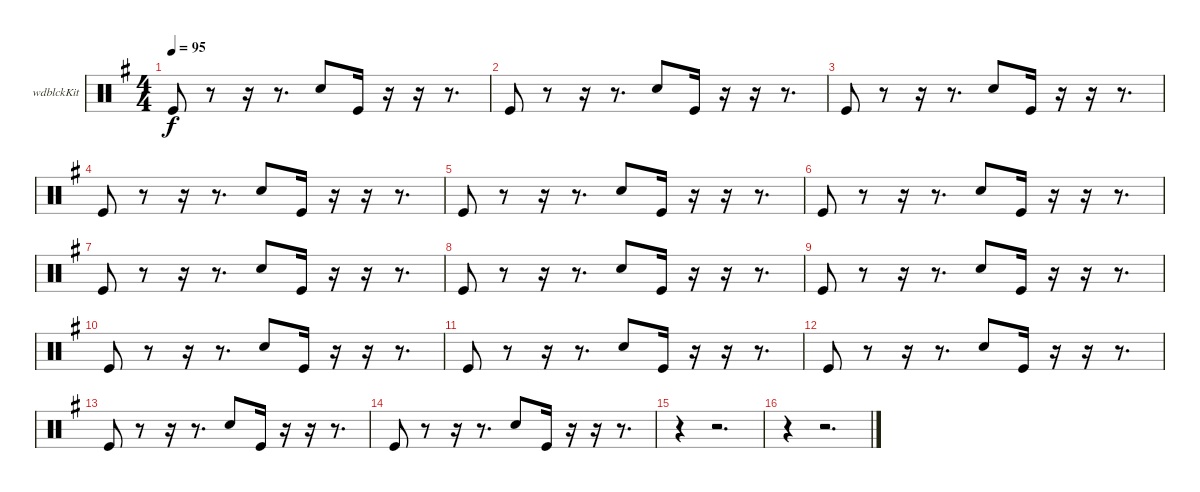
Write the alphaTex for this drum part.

\bracketExtendMode groupsimilarinstruments
\firstSystemTrackNameOrientation horizontal
\otherSystemsTrackNameOrientation horizontal
\track ("Woodblock" "wdblckKit") {instrument percussion}
\staff {score}
\articulation defaults
\ts (4 4)
\tempo 95
\clef neutral
\ks g "Kick (hit)".8{dy f}
r.8 r.16 r.8{d} "Snare (hit) 2".8 "Kick (hit)".16 r.16 r.16 r.8{d} |
"Kick (hit)".8 r.8 r.16 r.8{d} "Snare (hit) 2".8 "Kick (hit)".16 r.16 r.16 r.8{d} |
"Kick (hit)".8 r.8 r.16 r.8{d} "Snare (hit) 2".8 "Kick (hit)".16 r.16 r.16 r.8{d} |
"Kick (hit)".8 r.8 r.16 r.8{d} "Snare (hit) 2".8 "Kick (hit)".16 r.16 r.16 r.8{d} |
"Kick (hit)".8 r.8 r.16 r.8{d} "Snare (hit) 2".8 "Kick (hit)".16 r.16 r.16 r.8{d} |
"Kick (hit)".8 r.8 r.16 r.8{d} "Snare (hit) 2".8 "Kick (hit)".16 r.16 r.16 r.8{d} |
"Kick (hit)".8 r.8 r.16 r.8{d} "Snare (hit) 2".8 "Kick (hit)".16 r.16 r.16 r.8{d} |
"Kick (hit)".8 r.8 r.16 r.8{d} "Snare (hit) 2".8 "Kick (hit)".16 r.16 r.16 r.8{d} |
"Kick (hit)".8 r.8 r.16 r.8{d} "Snare (hit) 2".8 "Kick (hit)".16 r.16 r.16 r.8{d} |
"Kick (hit)".8 r.8 r.16 r.8{d} "Snare (hit) 2".8 "Kick (hit)".16 r.16 r.16 r.8{d} |
"Kick (hit)".8 r.8 r.16 r.8{d} "Snare (hit) 2".8 "Kick (hit)".16 r.16 r.16 r.8{d} |
"Kick (hit)".8 r.8 r.16 r.8{d} "Snare (hit) 2".8 "Kick (hit)".16 r.16 r.16 r.8{d} |
"Kick (hit)".8 r.8 r.16 r.8{d} "Snare (hit) 2".8 "Kick (hit)".16 r.16 r.16 r.8{d} |
"Kick (hit)".8 r.8 r.16 r.8{d} "Snare (hit) 2".8 "Kick (hit)".16 r.16 r.16 r.8{d} |
r.4 r.2{d} |
r.4 r.2{d}
